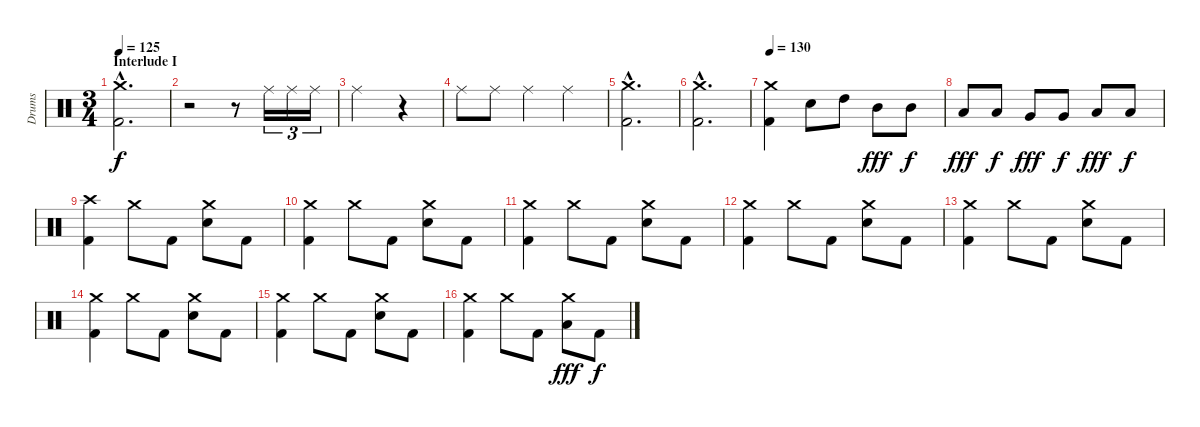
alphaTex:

\track ("Drums" "Drums") {instrument percussion}
\staff {score}
\articulation defaults
\ts (3 4)
\section ("" "Interlude I")
\tempo 125
\clef neutral
\ks c
("Kick (hit) 2"{hac} "Crash medium (hit)"{hac}).2{d dy f} |
r.2 r.8 "Ride (middle)".16{tu (3 2)} "Ride (middle)".16{tu (3 2)} "Ride (middle)".16{tu (3 2)} |
"Ride (middle)".2 r.4 |
"Ride (middle)".8 "Ride (middle)".8 "Ride (middle)".4 "Ride (middle)".4 |
("Kick (hit) 2"{hac} "Crash medium (hit)"{hac}).2{d} |
("Kick (hit) 2"{hac} "Crash medium (hit)"{hac}).2{d} |
\tempo 130
("Kick (hit) 2" "Crash medium (hit)").4 "Electric Snare (hit)".8 "High Tom (hit)".8 "Mid Tom (hit)".8{dy fff} "Mid Tom (hit)".8{dy f} |
"Low Tom (hit)".8{dy fff} "Low Tom (hit)".8{dy f} "Very Low Tom (hit)".8{dy fff} "Very Low Tom (hit)".8{dy f} "Low Floor Tom (hit)".8{dy fff} "Low Floor Tom (hit)".8{dy f} |
("Kick (hit) 2" "Crash high (hit)").4 "Crash medium (hit)".8 "Kick (hit) 2".8 ("Electric Snare (hit)" "Crash medium (hit)").8 "Kick (hit) 2".8 |
("Kick (hit) 2" "Crash medium (hit)").4 "Crash medium (hit)".8 "Kick (hit) 2".8 ("Electric Snare (hit)" "Crash medium (hit)").8 "Kick (hit) 2".8 |
("Kick (hit) 2" "Crash medium (hit)").4 "Crash medium (hit)".8 "Kick (hit) 2".8 ("Electric Snare (hit)" "Crash medium (hit)").8 "Kick (hit) 2".8 |
("Kick (hit) 2" "Crash medium (hit)").4 "Crash medium (hit)".8 "Kick (hit) 2".8 ("Electric Snare (hit)" "Crash medium (hit)").8 "Kick (hit) 2".8 |
("Kick (hit) 2" "Crash medium (hit)").4 "Crash medium (hit)".8 "Kick (hit) 2".8 ("Electric Snare (hit)" "Crash medium (hit)").8 "Kick (hit) 2".8 |
("Kick (hit) 2" "Crash medium (hit)").4 "Crash medium (hit)".8 "Kick (hit) 2".8 ("Electric Snare (hit)" "Crash medium (hit)").8 "Kick (hit) 2".8 |
("Kick (hit) 2" "Crash medium (hit)").4 "Crash medium (hit)".8 "Kick (hit) 2".8 ("Electric Snare (hit)" "Crash medium (hit)").8 "Kick (hit) 2".8 |
("Kick (hit) 2" "Crash medium (hit)").4 "Crash medium (hit)".8 "Kick (hit) 2".8 ("Low Tom (hit)" "Crash medium (hit)").8{dy fff} "Kick (hit) 2".8{dy f}
